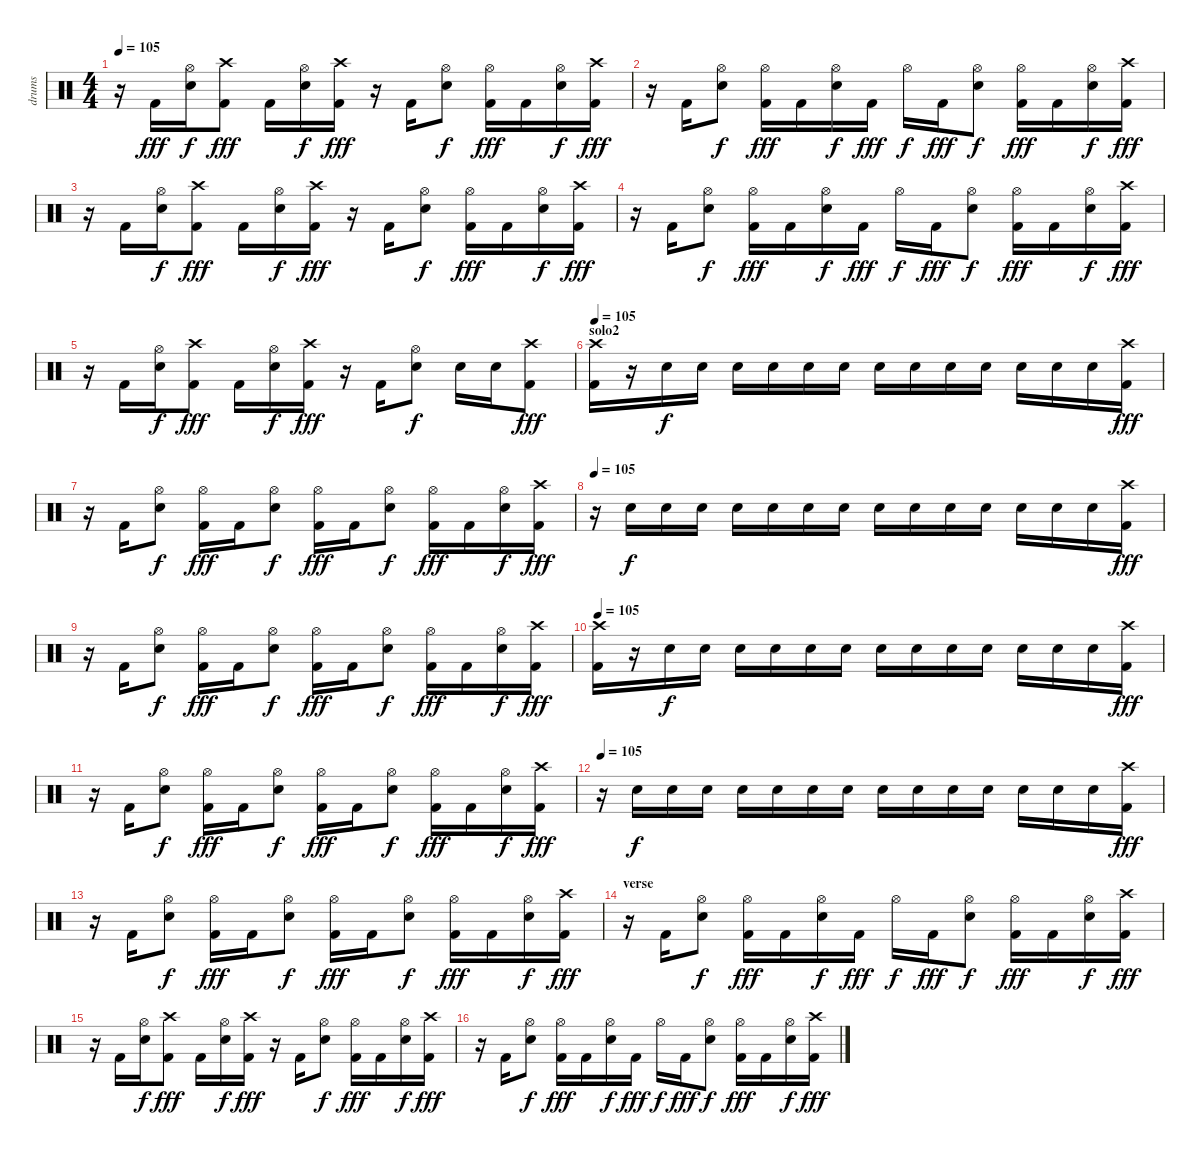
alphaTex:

\track ("drums" "drums") {instrument percussion}
\staff {score}
\articulation defaults
\ts (4 4)
\tempo 105
\clef neutral
\ks c
r.16{dy fff} "Kick (hit) 2".16 ("Hi-Hat (open)" "Snare (hit) 2").16{dy f} ("Crash high (hit)" "Kick (hit) 2").8{dy fff} "Kick (hit) 2".16 ("Hi-Hat (open)" "Snare (hit) 2").16{dy f} ("Crash high (hit)" "Kick (hit) 2").16{dy fff} r.16 "Kick (hit) 2".16 ("Hi-Hat (open)" "Snare (hit) 2").8{dy f} ("Hi-Hat (open)" "Kick (hit) 2").16{dy fff} "Kick (hit) 2".16 ("Hi-Hat (open)" "Snare (hit) 2").16{dy f} ("Crash high (hit)" "Kick (hit) 2").16{dy fff} |
r.16 "Kick (hit) 2".16 ("Hi-Hat (open)" "Snare (hit) 2").8{dy f} ("Hi-Hat (open)" "Kick (hit) 2").16{dy fff} "Kick (hit) 2".16 ("Hi-Hat (open)" "Snare (hit) 2").16{dy f} "Kick (hit) 2".16{dy fff} "Hi-Hat (open)".16{dy f} "Kick (hit) 2".16{dy fff} ("Hi-Hat (open)" "Snare (hit) 2").8{dy f} ("Hi-Hat (open)" "Kick (hit) 2").16{dy fff} "Kick (hit) 2".16 ("Hi-Hat (open)" "Snare (hit) 2").16{dy f} ("Crash high (hit)" "Kick (hit) 2").16{dy fff} |
r.16 "Kick (hit) 2".16 ("Hi-Hat (open)" "Snare (hit) 2").16{dy f} ("Crash high (hit)" "Kick (hit) 2").8{dy fff} "Kick (hit) 2".16 ("Hi-Hat (open)" "Snare (hit) 2").16{dy f} ("Crash high (hit)" "Kick (hit) 2").16{dy fff} r.16 "Kick (hit) 2".16 ("Hi-Hat (open)" "Snare (hit) 2").8{dy f} ("Hi-Hat (open)" "Kick (hit) 2").16{dy fff} "Kick (hit) 2".16 ("Hi-Hat (open)" "Snare (hit) 2").16{dy f} ("Crash high (hit)" "Kick (hit) 2").16{dy fff} |
r.16 "Kick (hit) 2".16 ("Hi-Hat (open)" "Snare (hit) 2").8{dy f} ("Hi-Hat (open)" "Kick (hit) 2").16{dy fff} "Kick (hit) 2".16 ("Hi-Hat (open)" "Snare (hit) 2").16{dy f} "Kick (hit) 2".16{dy fff} "Hi-Hat (open)".16{dy f} "Kick (hit) 2".16{dy fff} ("Hi-Hat (open)" "Snare (hit) 2").8{dy f} ("Hi-Hat (open)" "Kick (hit) 2").16{dy fff} "Kick (hit) 2".16 ("Hi-Hat (open)" "Snare (hit) 2").16{dy f} ("Crash high (hit)" "Kick (hit) 2").16{dy fff} |
r.16 "Kick (hit) 2".16 ("Hi-Hat (open)" "Snare (hit) 2").16{dy f} ("Crash high (hit)" "Kick (hit) 2").8{dy fff} "Kick (hit) 2".16 ("Hi-Hat (open)" "Snare (hit) 2").16{dy f} ("Crash high (hit)" "Kick (hit) 2").16{dy fff} r.16 "Kick (hit) 2".16 ("Hi-Hat (open)" "Snare (hit) 2").8{dy f} "Snare (hit) 2".16 "Snare (hit) 2".16 ("Crash high (hit)" "Kick (hit) 2").8{dy fff} |
\section ("" "solo2")
\tempo 105
("Crash high (hit)" "Kick (hit) 2").16 r.16 "Snare (hit) 2".16{dy f} "Snare (hit) 2".16 "Snare (hit) 2".16 "Snare (hit) 2".16 "Snare (hit) 2".16 "Snare (hit) 2".16 "Snare (hit) 2".16 "Snare (hit) 2".16 "Snare (hit) 2".16 "Snare (hit) 2".16 "Snare (hit) 2".16 "Snare (hit) 2".16 "Snare (hit) 2".16 ("Crash high (hit)" "Kick (hit) 2").16{dy fff} |
r.16 "Kick (hit) 2".16 ("Hi-Hat (open)" "Snare (hit) 2").8{dy f} ("Hi-Hat (open)" "Kick (hit) 2").16{dy fff} "Kick (hit) 2".16 ("Hi-Hat (open)" "Snare (hit) 2").8{dy f} ("Hi-Hat (open)" "Kick (hit) 2").16{dy fff} "Kick (hit) 2".16 ("Hi-Hat (open)" "Snare (hit) 2").8{dy f} ("Hi-Hat (open)" "Kick (hit) 2").16{dy fff} "Kick (hit) 2".16 ("Hi-Hat (open)" "Snare (hit) 2").16{dy f} ("Crash high (hit)" "Kick (hit) 2").16{dy fff} |
\tempo 105
r.16 "Snare (hit) 2".16{dy f} "Snare (hit) 2".16 "Snare (hit) 2".16 "Snare (hit) 2".16 "Snare (hit) 2".16 "Snare (hit) 2".16 "Snare (hit) 2".16 "Snare (hit) 2".16 "Snare (hit) 2".16 "Snare (hit) 2".16 "Snare (hit) 2".16 "Snare (hit) 2".16 "Snare (hit) 2".16 "Snare (hit) 2".16 ("Crash high (hit)" "Kick (hit) 2").16{dy fff} |
r.16 "Kick (hit) 2".16 ("Hi-Hat (open)" "Snare (hit) 2").8{dy f} ("Hi-Hat (open)" "Kick (hit) 2").16{dy fff} "Kick (hit) 2".16 ("Hi-Hat (open)" "Snare (hit) 2").8{dy f} ("Hi-Hat (open)" "Kick (hit) 2").16{dy fff} "Kick (hit) 2".16 ("Hi-Hat (open)" "Snare (hit) 2").8{dy f} ("Hi-Hat (open)" "Kick (hit) 2").16{dy fff} "Kick (hit) 2".16 ("Hi-Hat (open)" "Snare (hit) 2").16{dy f} ("Crash high (hit)" "Kick (hit) 2").16{dy fff} |
\tempo 105
("Crash high (hit)" "Kick (hit) 2").16 r.16 "Snare (hit) 2".16{dy f} "Snare (hit) 2".16 "Snare (hit) 2".16 "Snare (hit) 2".16 "Snare (hit) 2".16 "Snare (hit) 2".16 "Snare (hit) 2".16 "Snare (hit) 2".16 "Snare (hit) 2".16 "Snare (hit) 2".16 "Snare (hit) 2".16 "Snare (hit) 2".16 "Snare (hit) 2".16 ("Crash high (hit)" "Kick (hit) 2").16{dy fff} |
r.16 "Kick (hit) 2".16 ("Hi-Hat (open)" "Snare (hit) 2").8{dy f} ("Hi-Hat (open)" "Kick (hit) 2").16{dy fff} "Kick (hit) 2".16 ("Hi-Hat (open)" "Snare (hit) 2").8{dy f} ("Hi-Hat (open)" "Kick (hit) 2").16{dy fff} "Kick (hit) 2".16 ("Hi-Hat (open)" "Snare (hit) 2").8{dy f} ("Hi-Hat (open)" "Kick (hit) 2").16{dy fff} "Kick (hit) 2".16 ("Hi-Hat (open)" "Snare (hit) 2").16{dy f} ("Crash high (hit)" "Kick (hit) 2").16{dy fff} |
\tempo 105
r.16 "Snare (hit) 2".16{dy f} "Snare (hit) 2".16 "Snare (hit) 2".16 "Snare (hit) 2".16 "Snare (hit) 2".16 "Snare (hit) 2".16 "Snare (hit) 2".16 "Snare (hit) 2".16 "Snare (hit) 2".16 "Snare (hit) 2".16 "Snare (hit) 2".16 "Snare (hit) 2".16 "Snare (hit) 2".16 "Snare (hit) 2".16 ("Crash high (hit)" "Kick (hit) 2").16{dy fff} |
r.16 "Kick (hit) 2".16 ("Hi-Hat (open)" "Snare (hit) 2").8{dy f} ("Hi-Hat (open)" "Kick (hit) 2").16{dy fff} "Kick (hit) 2".16 ("Hi-Hat (open)" "Snare (hit) 2").8{dy f} ("Hi-Hat (open)" "Kick (hit) 2").16{dy fff} "Kick (hit) 2".16 ("Hi-Hat (open)" "Snare (hit) 2").8{dy f} ("Hi-Hat (open)" "Kick (hit) 2").16{dy fff} "Kick (hit) 2".16 ("Hi-Hat (open)" "Snare (hit) 2").16{dy f} ("Crash high (hit)" "Kick (hit) 2").16{dy fff} |
\section ("" "verse")
r.16 "Kick (hit) 2".16 ("Hi-Hat (open)" "Snare (hit) 2").8{dy f} ("Hi-Hat (open)" "Kick (hit) 2").16{dy fff} "Kick (hit) 2".16 ("Hi-Hat (open)" "Snare (hit) 2").16{dy f} "Kick (hit) 2".16{dy fff} "Hi-Hat (open)".16{dy f} "Kick (hit) 2".16{dy fff} ("Hi-Hat (open)" "Snare (hit) 2").8{dy f} ("Hi-Hat (open)" "Kick (hit) 2").16{dy fff} "Kick (hit) 2".16 ("Hi-Hat (open)" "Snare (hit) 2").16{dy f} ("Crash high (hit)" "Kick (hit) 2").16{dy fff} |
r.16 "Kick (hit) 2".16 ("Hi-Hat (open)" "Snare (hit) 2").16{dy f} ("Crash high (hit)" "Kick (hit) 2").8{dy fff} "Kick (hit) 2".16 ("Hi-Hat (open)" "Snare (hit) 2").16{dy f} ("Crash high (hit)" "Kick (hit) 2").16{dy fff} r.16 "Kick (hit) 2".16 ("Hi-Hat (open)" "Snare (hit) 2").8{dy f} ("Hi-Hat (open)" "Kick (hit) 2").16{dy fff} "Kick (hit) 2".16 ("Hi-Hat (open)" "Snare (hit) 2").16{dy f} ("Crash high (hit)" "Kick (hit) 2").16{dy fff} |
r.16 "Kick (hit) 2".16 ("Hi-Hat (open)" "Snare (hit) 2").8{dy f} ("Hi-Hat (open)" "Kick (hit) 2").16{dy fff} "Kick (hit) 2".16 ("Hi-Hat (open)" "Snare (hit) 2").16{dy f} "Kick (hit) 2".16{dy fff} "Hi-Hat (open)".16{dy f} "Kick (hit) 2".16{dy fff} ("Hi-Hat (open)" "Snare (hit) 2").8{dy f} ("Hi-Hat (open)" "Kick (hit) 2").16{dy fff} "Kick (hit) 2".16 ("Hi-Hat (open)" "Snare (hit) 2").16{dy f} ("Crash high (hit)" "Kick (hit) 2").16{dy fff}
